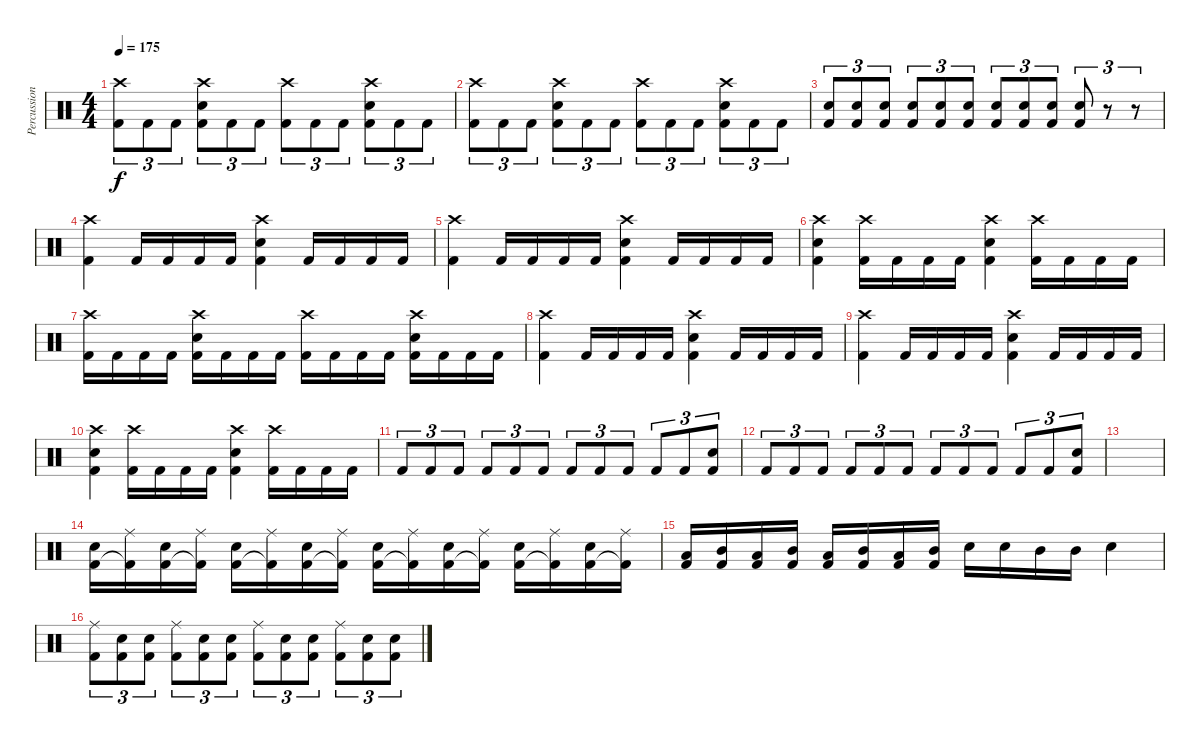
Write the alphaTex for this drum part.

\track ("Percussion" "Percussion") {instrument percussion}
\staff {score}
\articulation defaults
\ts (4 4)
\tempo 175
\clef neutral
\ks c
("Crash high (hit)" "Kick (hit) 2").8{tu (3 2) dy f} "Kick (hit) 2".8{tu (3 2)} "Kick (hit) 2".8{tu (3 2)} ("Crash high (hit)" "Electric Snare (hit)" "Kick (hit) 2").8{tu (3 2)} "Kick (hit) 2".8{tu (3 2)} "Kick (hit) 2".8{tu (3 2)} ("Crash high (hit)" "Kick (hit) 2").8{tu (3 2)} "Kick (hit) 2".8{tu (3 2)} "Kick (hit) 2".8{tu (3 2)} ("Crash high (hit)" "Electric Snare (hit)" "Kick (hit) 2").8{tu (3 2)} "Kick (hit) 2".8{tu (3 2)} "Kick (hit) 2".8{tu (3 2)} |
("Crash high (hit)" "Kick (hit) 2").8{tu (3 2)} "Kick (hit) 2".8{tu (3 2)} "Kick (hit) 2".8{tu (3 2)} ("Crash high (hit)" "Electric Snare (hit)" "Kick (hit) 2").8{tu (3 2)} "Kick (hit) 2".8{tu (3 2)} "Kick (hit) 2".8{tu (3 2)} ("Crash high (hit)" "Kick (hit) 2").8{tu (3 2)} "Kick (hit) 2".8{tu (3 2)} "Kick (hit) 2".8{tu (3 2)} ("Crash high (hit)" "Electric Snare (hit)" "Kick (hit) 2").8{tu (3 2)} "Kick (hit) 2".8{tu (3 2)} "Kick (hit) 2".8{tu (3 2)} |
("Electric Snare (hit)" "Kick (hit) 2").8{tu (3 2)} ("Electric Snare (hit)" "Kick (hit) 2").8{tu (3 2)} ("Electric Snare (hit)" "Kick (hit) 2").8{tu (3 2)} ("Electric Snare (hit)" "Kick (hit) 2").8{tu (3 2)} ("Electric Snare (hit)" "Kick (hit) 2").8{tu (3 2)} ("Electric Snare (hit)" "Kick (hit) 2").8{tu (3 2)} ("Electric Snare (hit)" "Kick (hit) 2").8{tu (3 2)} ("Electric Snare (hit)" "Kick (hit) 2").8{tu (3 2)} ("Electric Snare (hit)" "Kick (hit) 2").8{tu (3 2)} ("Electric Snare (hit)" "Kick (hit) 2").8{tu (3 2)} r.8{tu (3 2)} r.8{tu (3 2)} |
("Crash high (hit)" "Kick (hit) 2").4 "Kick (hit) 2".16 "Kick (hit) 2".16 "Kick (hit) 2".16 "Kick (hit) 2".16 ("Crash high (hit)" "Electric Snare (hit)" "Kick (hit) 2").4 "Kick (hit) 2".16 "Kick (hit) 2".16 "Kick (hit) 2".16 "Kick (hit) 2".16 |
("Crash high (hit)" "Kick (hit) 2").4 "Kick (hit) 2".16 "Kick (hit) 2".16 "Kick (hit) 2".16 "Kick (hit) 2".16 ("Crash high (hit)" "Electric Snare (hit)" "Kick (hit) 2").4 "Kick (hit) 2".16 "Kick (hit) 2".16 "Kick (hit) 2".16 "Kick (hit) 2".16 |
("Crash high (hit)" "Electric Snare (hit)" "Kick (hit) 2").4 ("Crash high (hit)" "Kick (hit) 2").16 "Kick (hit) 2".16 "Kick (hit) 2".16 "Kick (hit) 2".16 ("Crash high (hit)" "Electric Snare (hit)" "Kick (hit) 2").4 ("Crash high (hit)" "Kick (hit) 2").16 "Kick (hit) 2".16 "Kick (hit) 2".16 "Kick (hit) 2".16 |
("Crash high (hit)" "Kick (hit) 2").16 "Kick (hit) 2".16 "Kick (hit) 2".16 "Kick (hit) 2".16 ("Crash high (hit)" "Electric Snare (hit)" "Kick (hit) 2").16 "Kick (hit) 2".16 "Kick (hit) 2".16 "Kick (hit) 2".16 ("Crash high (hit)" "Kick (hit) 2").16 "Kick (hit) 2".16 "Kick (hit) 2".16 "Kick (hit) 2".16 ("Crash high (hit)" "Electric Snare (hit)" "Kick (hit) 2").16 "Kick (hit) 2".16 "Kick (hit) 2".16 "Kick (hit) 2".16 |
("Crash high (hit)" "Kick (hit) 2").4 "Kick (hit) 2".16 "Kick (hit) 2".16 "Kick (hit) 2".16 "Kick (hit) 2".16 ("Crash high (hit)" "Electric Snare (hit)" "Kick (hit) 2").4 "Kick (hit) 2".16 "Kick (hit) 2".16 "Kick (hit) 2".16 "Kick (hit) 2".16 |
("Crash high (hit)" "Kick (hit) 2").4 "Kick (hit) 2".16 "Kick (hit) 2".16 "Kick (hit) 2".16 "Kick (hit) 2".16 ("Crash high (hit)" "Electric Snare (hit)" "Kick (hit) 2").4 "Kick (hit) 2".16 "Kick (hit) 2".16 "Kick (hit) 2".16 "Kick (hit) 2".16 |
("Crash high (hit)" "Electric Snare (hit)" "Kick (hit) 2").4 ("Crash high (hit)" "Kick (hit) 2").16 "Kick (hit) 2".16 "Kick (hit) 2".16 "Kick (hit) 2".16 ("Crash high (hit)" "Electric Snare (hit)" "Kick (hit) 2").4 ("Crash high (hit)" "Kick (hit) 2").16 "Kick (hit) 2".16 "Kick (hit) 2".16 "Kick (hit) 2".16 |
"Kick (hit) 2".8{tu (3 2)} "Kick (hit) 2".8{tu (3 2)} "Kick (hit) 2".8{tu (3 2)} "Kick (hit) 2".8{tu (3 2)} "Kick (hit) 2".8{tu (3 2)} "Kick (hit) 2".8{tu (3 2)} "Kick (hit) 2".8{tu (3 2)} "Kick (hit) 2".8{tu (3 2)} "Kick (hit) 2".8{tu (3 2)} "Kick (hit) 2".8{tu (3 2)} "Kick (hit) 2".8{tu (3 2)} ("Electric Snare (hit)" "Kick (hit) 2").8{tu (3 2)} |
"Kick (hit) 2".8{tu (3 2)} "Kick (hit) 2".8{tu (3 2)} "Kick (hit) 2".8{tu (3 2)} "Kick (hit) 2".8{tu (3 2)} "Kick (hit) 2".8{tu (3 2)} "Kick (hit) 2".8{tu (3 2)} "Kick (hit) 2".8{tu (3 2)} "Kick (hit) 2".8{tu (3 2)} "Kick (hit) 2".8{tu (3 2)} "Kick (hit) 2".8{tu (3 2)} "Kick (hit) 2".8{tu (3 2)} ("Electric Snare (hit)" "Kick (hit) 2").8{tu (3 2)} |
|
("Electric Snare (hit)" "Kick (hit) 2").16 ("Ride (middle)" "Kick (hit) 2"{t}).16 ("Electric Snare (hit)" "Kick (hit) 2").16 ("Ride (middle)" "Kick (hit) 2"{t}).16 ("Electric Snare (hit)" "Kick (hit) 2").16 ("Ride (middle)" "Kick (hit) 2"{t}).16 ("Electric Snare (hit)" "Kick (hit) 2").16 ("Ride (middle)" "Kick (hit) 2"{t}).16 ("Electric Snare (hit)" "Kick (hit) 2").16 ("Ride (middle)" "Kick (hit) 2"{t}).16 ("Electric Snare (hit)" "Kick (hit) 2").16 ("Ride (middle)" "Kick (hit) 2"{t}).16 ("Electric Snare (hit)" "Kick (hit) 2").16 ("Ride (middle)" "Kick (hit) 2"{t}).16 ("Electric Snare (hit)" "Kick (hit) 2").16 ("Ride (middle)" "Kick (hit) 2"{t}).16 |
("Low Tom (hit)" "Kick (hit) 2").16 ("Mid Tom (hit)" "Kick (hit) 2").16 ("Low Tom (hit)" "Kick (hit) 2").16 ("Mid Tom (hit)" "Kick (hit) 2").16 ("Low Tom (hit)" "Kick (hit) 2").16 ("Mid Tom (hit)" "Kick (hit) 2").16 ("Low Tom (hit)" "Kick (hit) 2").16 ("Mid Tom (hit)" "Kick (hit) 2").16 "Electric Snare (hit)".16 "Electric Snare (hit)".16 "Mid Tom (hit)".16 "Mid Tom (hit)".16 "Electric Snare (hit)".4 |
("Ride (middle)" "Kick (hit) 2").8{tu (3 2)} ("Electric Snare (hit)" "Kick (hit) 2").8{tu (3 2)} ("Electric Snare (hit)" "Kick (hit) 2").8{tu (3 2)} ("Ride (middle)" "Kick (hit) 2").8{tu (3 2)} ("Electric Snare (hit)" "Kick (hit) 2").8{tu (3 2)} ("Electric Snare (hit)" "Kick (hit) 2").8{tu (3 2)} ("Ride (middle)" "Kick (hit) 2").8{tu (3 2)} ("Electric Snare (hit)" "Kick (hit) 2").8{tu (3 2)} ("Electric Snare (hit)" "Kick (hit) 2").8{tu (3 2)} ("Ride (middle)" "Kick (hit) 2").8{tu (3 2)} ("Electric Snare (hit)" "Kick (hit) 2").8{tu (3 2)} ("Electric Snare (hit)" "Kick (hit) 2").8{tu (3 2)}
